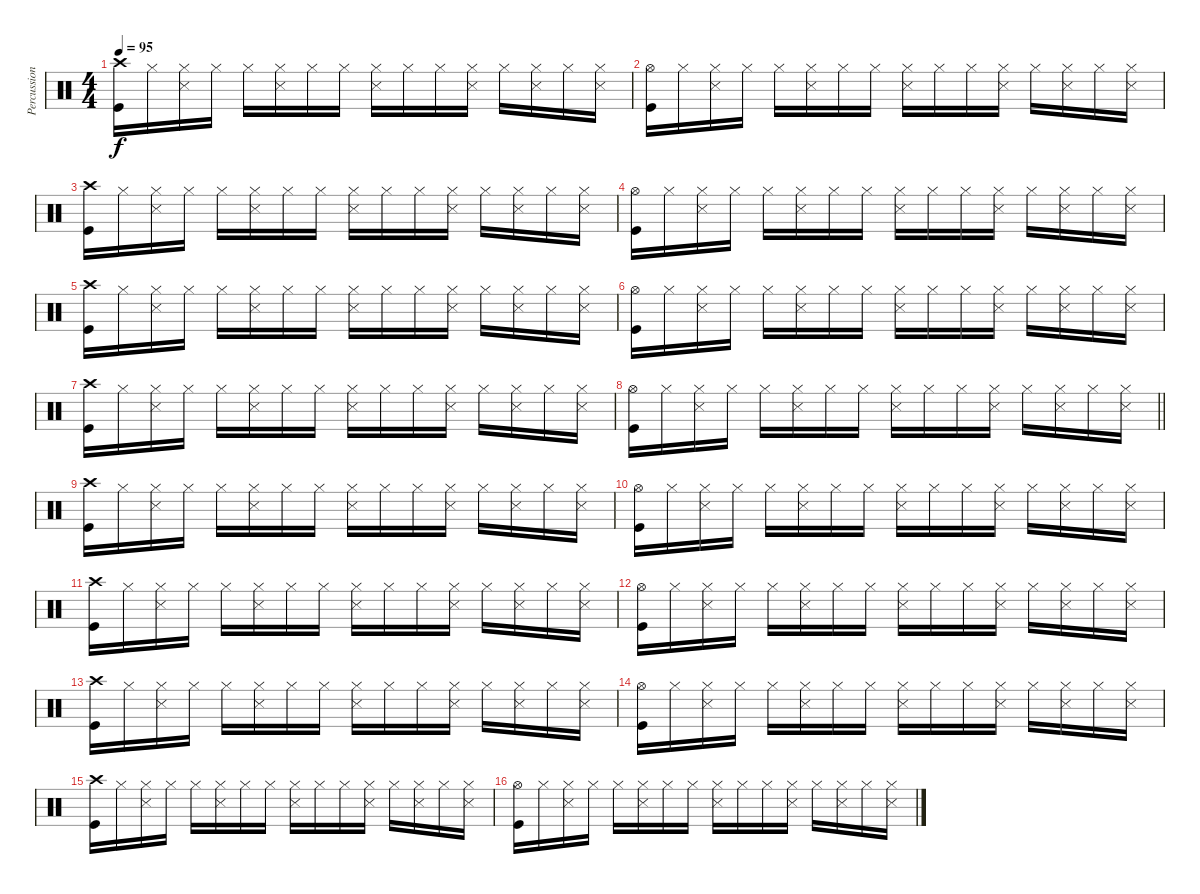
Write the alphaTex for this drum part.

\track ("Percussion" "Percussion") {instrument percussion}
\staff {score}
\articulation defaults
\ts (4 4)
\tempo 95
\clef neutral
\ks c
("Crash high (hit)" "Kick (hit)").16{dy f} "Hi-Hat (closed)".16 ("Hi-Hat (closed)" "Snare (side stick) 3").16 "Hi-Hat (closed)".16 "Hi-Hat (closed)".16 ("Hi-Hat (closed)" "Snare (side stick) 3").16 "Hi-Hat (closed)".16 "Hi-Hat (closed)".16 ("Hi-Hat (closed)" "Snare (side stick) 3").16 "Hi-Hat (closed)".16 "Hi-Hat (closed)".16 ("Hi-Hat (closed)" "Snare (side stick) 3").16 "Hi-Hat (closed)".16 ("Hi-Hat (closed)" "Snare (side stick) 3").16 "Hi-Hat (closed)".16 ("Hi-Hat (closed)" "Snare (side stick) 3").16 |
("Hi-Hat (open)" "Kick (hit)").16 "Hi-Hat (closed)".16 ("Hi-Hat (closed)" "Snare (side stick) 3").16 "Hi-Hat (closed)".16 "Hi-Hat (closed)".16 ("Hi-Hat (closed)" "Snare (side stick) 3").16 "Hi-Hat (closed)".16 "Hi-Hat (closed)".16 ("Hi-Hat (closed)" "Snare (side stick) 3").16 "Hi-Hat (closed)".16 "Hi-Hat (closed)".16 ("Hi-Hat (closed)" "Snare (side stick) 3").16 "Hi-Hat (closed)".16 ("Hi-Hat (closed)" "Snare (side stick) 3").16 "Hi-Hat (closed)".16 ("Hi-Hat (closed)" "Snare (side stick) 3").16 |
("Crash high (hit)" "Kick (hit)").16 "Hi-Hat (closed)".16 ("Hi-Hat (closed)" "Snare (side stick) 3").16 "Hi-Hat (closed)".16 "Hi-Hat (closed)".16 ("Hi-Hat (closed)" "Snare (side stick) 3").16 "Hi-Hat (closed)".16 "Hi-Hat (closed)".16 ("Hi-Hat (closed)" "Snare (side stick) 3").16 "Hi-Hat (closed)".16 "Hi-Hat (closed)".16 ("Hi-Hat (closed)" "Snare (side stick) 3").16 "Hi-Hat (closed)".16 ("Hi-Hat (closed)" "Snare (side stick) 3").16 "Hi-Hat (closed)".16 ("Hi-Hat (closed)" "Snare (side stick) 3").16 |
("Hi-Hat (open)" "Kick (hit)").16 "Hi-Hat (closed)".16 ("Hi-Hat (closed)" "Snare (side stick) 3").16 "Hi-Hat (closed)".16 "Hi-Hat (closed)".16 ("Hi-Hat (closed)" "Snare (side stick) 3").16 "Hi-Hat (closed)".16 "Hi-Hat (closed)".16 ("Hi-Hat (closed)" "Snare (side stick) 3").16 "Hi-Hat (closed)".16 "Hi-Hat (closed)".16 ("Hi-Hat (closed)" "Snare (side stick) 3").16 "Hi-Hat (closed)".16 ("Hi-Hat (closed)" "Snare (side stick) 3").16 "Hi-Hat (closed)".16 ("Hi-Hat (closed)" "Snare (side stick) 3").16 |
("Crash high (hit)" "Kick (hit)").16 "Hi-Hat (closed)".16 ("Hi-Hat (closed)" "Snare (side stick) 3").16 "Hi-Hat (closed)".16 "Hi-Hat (closed)".16 ("Hi-Hat (closed)" "Snare (side stick) 3").16 "Hi-Hat (closed)".16 "Hi-Hat (closed)".16 ("Hi-Hat (closed)" "Snare (side stick) 3").16 "Hi-Hat (closed)".16 "Hi-Hat (closed)".16 ("Hi-Hat (closed)" "Snare (side stick) 3").16 "Hi-Hat (closed)".16 ("Hi-Hat (closed)" "Snare (side stick) 3").16 "Hi-Hat (closed)".16 ("Hi-Hat (closed)" "Snare (side stick) 3").16 |
("Hi-Hat (open)" "Kick (hit)").16 "Hi-Hat (closed)".16 ("Hi-Hat (closed)" "Snare (side stick) 3").16 "Hi-Hat (closed)".16 "Hi-Hat (closed)".16 ("Hi-Hat (closed)" "Snare (side stick) 3").16 "Hi-Hat (closed)".16 "Hi-Hat (closed)".16 ("Hi-Hat (closed)" "Snare (side stick) 3").16 "Hi-Hat (closed)".16 "Hi-Hat (closed)".16 ("Hi-Hat (closed)" "Snare (side stick) 3").16 "Hi-Hat (closed)".16 ("Hi-Hat (closed)" "Snare (side stick) 3").16 "Hi-Hat (closed)".16 ("Hi-Hat (closed)" "Snare (side stick) 3").16 |
("Crash high (hit)" "Kick (hit)").16 "Hi-Hat (closed)".16 ("Hi-Hat (closed)" "Snare (side stick) 3").16 "Hi-Hat (closed)".16 "Hi-Hat (closed)".16 ("Hi-Hat (closed)" "Snare (side stick) 3").16 "Hi-Hat (closed)".16 "Hi-Hat (closed)".16 ("Hi-Hat (closed)" "Snare (side stick) 3").16 "Hi-Hat (closed)".16 "Hi-Hat (closed)".16 ("Hi-Hat (closed)" "Snare (side stick) 3").16 "Hi-Hat (closed)".16 ("Hi-Hat (closed)" "Snare (side stick) 3").16 "Hi-Hat (closed)".16 ("Hi-Hat (closed)" "Snare (side stick) 3").16 |
\barLineRight lightlight
("Hi-Hat (open)" "Kick (hit)").16 "Hi-Hat (closed)".16 ("Hi-Hat (closed)" "Snare (side stick) 3").16 "Hi-Hat (closed)".16 "Hi-Hat (closed)".16 ("Hi-Hat (closed)" "Snare (side stick) 3").16 "Hi-Hat (closed)".16 "Hi-Hat (closed)".16 ("Hi-Hat (closed)" "Snare (side stick) 3").16 "Hi-Hat (closed)".16 "Hi-Hat (closed)".16 ("Hi-Hat (closed)" "Snare (side stick) 3").16 "Hi-Hat (closed)".16 ("Hi-Hat (closed)" "Snare (side stick) 3").16 "Hi-Hat (closed)".16 ("Hi-Hat (closed)" "Snare (side stick) 3").16 |
("Crash high (hit)" "Kick (hit)").16 "Hi-Hat (closed)".16 ("Hi-Hat (closed)" "Snare (side stick) 3").16 "Hi-Hat (closed)".16 "Hi-Hat (closed)".16 ("Hi-Hat (closed)" "Snare (side stick) 3").16 "Hi-Hat (closed)".16 "Hi-Hat (closed)".16 ("Hi-Hat (closed)" "Snare (side stick) 3").16 "Hi-Hat (closed)".16 "Hi-Hat (closed)".16 ("Hi-Hat (closed)" "Snare (side stick) 3").16 "Hi-Hat (closed)".16 ("Hi-Hat (closed)" "Snare (side stick) 3").16 "Hi-Hat (closed)".16 ("Hi-Hat (closed)" "Snare (side stick) 3").16 |
("Hi-Hat (open)" "Kick (hit)").16 "Hi-Hat (closed)".16 ("Hi-Hat (closed)" "Snare (side stick) 3").16 "Hi-Hat (closed)".16 "Hi-Hat (closed)".16 ("Hi-Hat (closed)" "Snare (side stick) 3").16 "Hi-Hat (closed)".16 "Hi-Hat (closed)".16 ("Hi-Hat (closed)" "Snare (side stick) 3").16 "Hi-Hat (closed)".16 "Hi-Hat (closed)".16 ("Hi-Hat (closed)" "Snare (side stick) 3").16 "Hi-Hat (closed)".16 ("Hi-Hat (closed)" "Snare (side stick) 3").16 "Hi-Hat (closed)".16 ("Hi-Hat (closed)" "Snare (side stick) 3").16 |
("Crash high (hit)" "Kick (hit)").16 "Hi-Hat (closed)".16 ("Hi-Hat (closed)" "Snare (side stick) 3").16 "Hi-Hat (closed)".16 "Hi-Hat (closed)".16 ("Hi-Hat (closed)" "Snare (side stick) 3").16 "Hi-Hat (closed)".16 "Hi-Hat (closed)".16 ("Hi-Hat (closed)" "Snare (side stick) 3").16 "Hi-Hat (closed)".16 "Hi-Hat (closed)".16 ("Hi-Hat (closed)" "Snare (side stick) 3").16 "Hi-Hat (closed)".16 ("Hi-Hat (closed)" "Snare (side stick) 3").16 "Hi-Hat (closed)".16 ("Hi-Hat (closed)" "Snare (side stick) 3").16 |
("Hi-Hat (open)" "Kick (hit)").16 "Hi-Hat (closed)".16 ("Hi-Hat (closed)" "Snare (side stick) 3").16 "Hi-Hat (closed)".16 "Hi-Hat (closed)".16 ("Hi-Hat (closed)" "Snare (side stick) 3").16 "Hi-Hat (closed)".16 "Hi-Hat (closed)".16 ("Hi-Hat (closed)" "Snare (side stick) 3").16 "Hi-Hat (closed)".16 "Hi-Hat (closed)".16 ("Hi-Hat (closed)" "Snare (side stick) 3").16 "Hi-Hat (closed)".16 ("Hi-Hat (closed)" "Snare (side stick) 3").16 "Hi-Hat (closed)".16 ("Hi-Hat (closed)" "Snare (side stick) 3").16 |
("Crash high (hit)" "Kick (hit)").16 "Hi-Hat (closed)".16 ("Hi-Hat (closed)" "Snare (side stick) 3").16 "Hi-Hat (closed)".16 "Hi-Hat (closed)".16 ("Hi-Hat (closed)" "Snare (side stick) 3").16 "Hi-Hat (closed)".16 "Hi-Hat (closed)".16 ("Hi-Hat (closed)" "Snare (side stick) 3").16 "Hi-Hat (closed)".16 "Hi-Hat (closed)".16 ("Hi-Hat (closed)" "Snare (side stick) 3").16 "Hi-Hat (closed)".16 ("Hi-Hat (closed)" "Snare (side stick) 3").16 "Hi-Hat (closed)".16 ("Hi-Hat (closed)" "Snare (side stick) 3").16 |
("Hi-Hat (open)" "Kick (hit)").16 "Hi-Hat (closed)".16 ("Hi-Hat (closed)" "Snare (side stick) 3").16 "Hi-Hat (closed)".16 "Hi-Hat (closed)".16 ("Hi-Hat (closed)" "Snare (side stick) 3").16 "Hi-Hat (closed)".16 "Hi-Hat (closed)".16 ("Hi-Hat (closed)" "Snare (side stick) 3").16 "Hi-Hat (closed)".16 "Hi-Hat (closed)".16 ("Hi-Hat (closed)" "Snare (side stick) 3").16 "Hi-Hat (closed)".16 ("Hi-Hat (closed)" "Snare (side stick) 3").16 "Hi-Hat (closed)".16 ("Hi-Hat (closed)" "Snare (side stick) 3").16 |
("Crash high (hit)" "Kick (hit)").16 "Hi-Hat (closed)".16 ("Hi-Hat (closed)" "Snare (side stick) 3").16 "Hi-Hat (closed)".16 "Hi-Hat (closed)".16 ("Hi-Hat (closed)" "Snare (side stick) 3").16 "Hi-Hat (closed)".16 "Hi-Hat (closed)".16 ("Hi-Hat (closed)" "Snare (side stick) 3").16 "Hi-Hat (closed)".16 "Hi-Hat (closed)".16 ("Hi-Hat (closed)" "Snare (side stick) 3").16 "Hi-Hat (closed)".16 ("Hi-Hat (closed)" "Snare (side stick) 3").16 "Hi-Hat (closed)".16 ("Hi-Hat (closed)" "Snare (side stick) 3").16 |
("Hi-Hat (open)" "Kick (hit)").16 "Hi-Hat (closed)".16 ("Hi-Hat (closed)" "Snare (side stick) 3").16 "Hi-Hat (closed)".16 "Hi-Hat (closed)".16 ("Hi-Hat (closed)" "Snare (side stick) 3").16 "Hi-Hat (closed)".16 "Hi-Hat (closed)".16 ("Hi-Hat (closed)" "Snare (side stick) 3").16 "Hi-Hat (closed)".16 "Hi-Hat (closed)".16 ("Hi-Hat (closed)" "Snare (side stick) 3").16 "Hi-Hat (closed)".16 ("Hi-Hat (closed)" "Snare (side stick) 3").16 "Hi-Hat (closed)".16 ("Hi-Hat (closed)" "Snare (side stick) 3").16
